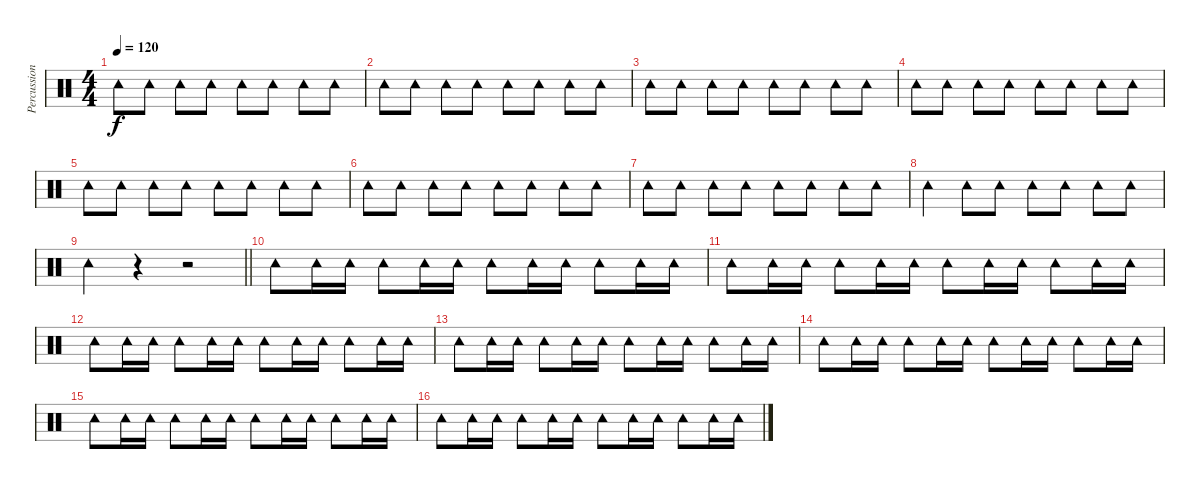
\track ("Percussion" "Percussion") {instrument percussion}
\staff {score}
\articulation defaults
\ts (4 4)
\tempo 120
\clef neutral
\ks c "Tambourine (hit)".8{dy f} "Tambourine (hit)".8 "Tambourine (hit)".8 "Tambourine (hit)".8 "Tambourine (hit)".8 "Tambourine (hit)".8 "Tambourine (hit)".8 "Tambourine (hit)".8
|
"Tambourine (hit)".8 "Tambourine (hit)".8 "Tambourine (hit)".8 "Tambourine (hit)".8 "Tambourine (hit)".8 "Tambourine (hit)".8 "Tambourine (hit)".8 "Tambourine (hit)".8 |
"Tambourine (hit)".8 "Tambourine (hit)".8 "Tambourine (hit)".8 "Tambourine (hit)".8 "Tambourine (hit)".8 "Tambourine (hit)".8 "Tambourine (hit)".8 "Tambourine (hit)".8 |
"Tambourine (hit)".8 "Tambourine (hit)".8 "Tambourine (hit)".8 "Tambourine (hit)".8 "Tambourine (hit)".8 "Tambourine (hit)".8 "Tambourine (hit)".8 "Tambourine (hit)".8 |
"Tambourine (hit)".8 "Tambourine (hit)".8 "Tambourine (hit)".8 "Tambourine (hit)".8 "Tambourine (hit)".8 "Tambourine (hit)".8 "Tambourine (hit)".8 "Tambourine (hit)".8 |
"Tambourine (hit)".8 "Tambourine (hit)".8 "Tambourine (hit)".8 "Tambourine (hit)".8 "Tambourine (hit)".8 "Tambourine (hit)".8 "Tambourine (hit)".8 "Tambourine (hit)".8 |
"Tambourine (hit)".8 "Tambourine (hit)".8 "Tambourine (hit)".8 "Tambourine (hit)".8 "Tambourine (hit)".8 "Tambourine (hit)".8 "Tambourine (hit)".8 "Tambourine (hit)".8 |
"Tambourine (hit)".4 "Tambourine (hit)".8 "Tambourine (hit)".8 "Tambourine (hit)".8 "Tambourine (hit)".8 "Tambourine (hit)".8 "Tambourine (hit)".8 |
\barLineRight lightlight "Tambourine (hit)".4
r.4 r.2 |
"Tambourine (hit)".8 "Tambourine (hit)".16 "Tambourine (hit)".16 "Tambourine (hit)".8 "Tambourine (hit)".16 "Tambourine (hit)".16 "Tambourine (hit)".8 "Tambourine (hit)".16 "Tambourine (hit)".16 "Tambourine (hit)".8 "Tambourine (hit)".16 "Tambourine (hit)".16 |
"Tambourine (hit)".8 "Tambourine (hit)".16 "Tambourine (hit)".16 "Tambourine (hit)".8 "Tambourine (hit)".16 "Tambourine (hit)".16 "Tambourine (hit)".8 "Tambourine (hit)".16 "Tambourine (hit)".16 "Tambourine (hit)".8 "Tambourine (hit)".16 "Tambourine (hit)".16 |
"Tambourine (hit)".8 "Tambourine (hit)".16 "Tambourine (hit)".16 "Tambourine (hit)".8 "Tambourine (hit)".16 "Tambourine (hit)".16 "Tambourine (hit)".8 "Tambourine (hit)".16 "Tambourine (hit)".16 "Tambourine (hit)".8 "Tambourine (hit)".16 "Tambourine (hit)".16 |
"Tambourine (hit)".8 "Tambourine (hit)".16 "Tambourine (hit)".16 "Tambourine (hit)".8 "Tambourine (hit)".16 "Tambourine (hit)".16 "Tambourine (hit)".8 "Tambourine (hit)".16 "Tambourine (hit)".16 "Tambourine (hit)".8 "Tambourine (hit)".16 "Tambourine (hit)".16 |
"Tambourine (hit)".8 "Tambourine (hit)".16 "Tambourine (hit)".16 "Tambourine (hit)".8 "Tambourine (hit)".16 "Tambourine (hit)".16 "Tambourine (hit)".8 "Tambourine (hit)".16 "Tambourine (hit)".16 "Tambourine (hit)".8 "Tambourine (hit)".16 "Tambourine (hit)".16 |
"Tambourine (hit)".8 "Tambourine (hit)".16 "Tambourine (hit)".16 "Tambourine (hit)".8 "Tambourine (hit)".16 "Tambourine (hit)".16 "Tambourine (hit)".8 "Tambourine (hit)".16 "Tambourine (hit)".16 "Tambourine (hit)".8 "Tambourine (hit)".16 "Tambourine (hit)".16 |
"Tambourine (hit)".8 "Tambourine (hit)".16 "Tambourine (hit)".16 "Tambourine (hit)".8 "Tambourine (hit)".16 "Tambourine (hit)".16 "Tambourine (hit)".8 "Tambourine (hit)".16 "Tambourine (hit)".16 "Tambourine (hit)".8 "Tambourine (hit)".16 "Tambourine (hit)".16
